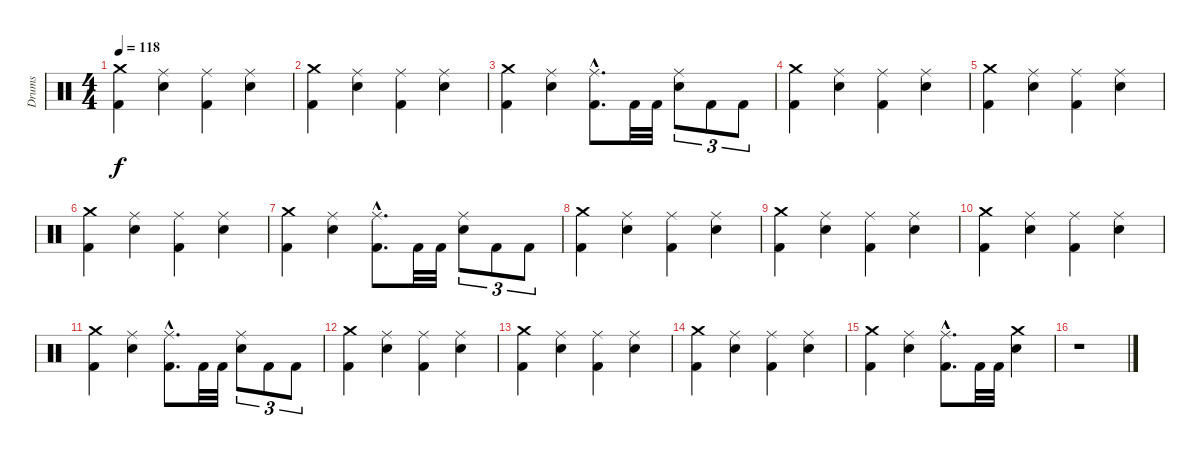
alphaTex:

\track ("Drums" "Drums") {instrument percussion}
\staff {score}
\articulation defaults
\ts (4 4)
\tempo 118
\clef neutral
\ks c
("Crash medium (hit)" "Kick (hit) 2").4{dy f} ("Ride (middle)" "Electric Snare (hit)").4 ("Ride (middle)" "Kick (hit) 2").4 ("Ride (middle)" "Electric Snare (hit)").4 |
("Crash medium (hit)" "Kick (hit) 2").4 ("Ride (middle)" "Electric Snare (hit)").4 ("Ride (middle)" "Kick (hit) 2").4 ("Ride (middle)" "Electric Snare (hit)").4 |
("Crash medium (hit)" "Kick (hit) 2").4 ("Ride (middle)" "Electric Snare (hit)").4 ("Ride (middle)"{hac} "Kick (hit) 2"{hac}).8{d} "Kick (hit) 2".32 "Kick (hit) 2".32 ("Ride (middle)" "Electric Snare (hit)").8{tu (3 2)} "Kick (hit) 2".8{tu (3 2)} "Kick (hit) 2".8{tu (3 2)} |
("Crash medium (hit)" "Kick (hit) 2").4 ("Ride (middle)" "Electric Snare (hit)").4 ("Ride (middle)" "Kick (hit) 2").4 ("Ride (middle)" "Electric Snare (hit)").4 |
("Crash medium (hit)" "Kick (hit) 2").4 ("Ride (middle)" "Electric Snare (hit)").4 ("Ride (middle)" "Kick (hit) 2").4 ("Ride (middle)" "Electric Snare (hit)").4 |
("Crash medium (hit)" "Kick (hit) 2").4 ("Ride (middle)" "Electric Snare (hit)").4 ("Ride (middle)" "Kick (hit) 2").4 ("Ride (middle)" "Electric Snare (hit)").4 |
("Crash medium (hit)" "Kick (hit) 2").4 ("Ride (middle)" "Electric Snare (hit)").4 ("Ride (middle)"{hac} "Kick (hit) 2"{hac}).8{d} "Kick (hit) 2".32 "Kick (hit) 2".32 ("Ride (middle)" "Electric Snare (hit)").8{tu (3 2)} "Kick (hit) 2".8{tu (3 2)} "Kick (hit) 2".8{tu (3 2)} |
("Crash medium (hit)" "Kick (hit) 2").4 ("Ride (middle)" "Electric Snare (hit)").4 ("Ride (middle)" "Kick (hit) 2").4 ("Ride (middle)" "Electric Snare (hit)").4 |
("Crash medium (hit)" "Kick (hit) 2").4 ("Ride (middle)" "Electric Snare (hit)").4 ("Ride (middle)" "Kick (hit) 2").4 ("Ride (middle)" "Electric Snare (hit)").4 |
("Crash medium (hit)" "Kick (hit) 2").4 ("Ride (middle)" "Electric Snare (hit)").4 ("Ride (middle)" "Kick (hit) 2").4 ("Ride (middle)" "Electric Snare (hit)").4 |
("Crash medium (hit)" "Kick (hit) 2").4 ("Ride (middle)" "Electric Snare (hit)").4 ("Ride (middle)"{hac} "Kick (hit) 2"{hac}).8{d} "Kick (hit) 2".32 "Kick (hit) 2".32 ("Ride (middle)" "Electric Snare (hit)").8{tu (3 2)} "Kick (hit) 2".8{tu (3 2)} "Kick (hit) 2".8{tu (3 2)} |
("Crash medium (hit)" "Kick (hit) 2").4 ("Ride (middle)" "Electric Snare (hit)").4 ("Ride (middle)" "Kick (hit) 2").4 ("Ride (middle)" "Electric Snare (hit)").4 |
("Crash medium (hit)" "Kick (hit) 2").4 ("Ride (middle)" "Electric Snare (hit)").4 ("Ride (middle)" "Kick (hit) 2").4 ("Ride (middle)" "Electric Snare (hit)").4 |
("Crash medium (hit)" "Kick (hit) 2").4 ("Ride (middle)" "Electric Snare (hit)").4 ("Ride (middle)" "Kick (hit) 2").4 ("Ride (middle)" "Electric Snare (hit)").4 |
("Crash medium (hit)" "Kick (hit) 2").4 ("Ride (middle)" "Electric Snare (hit)").4 ("Ride (middle)"{hac} "Kick (hit) 2"{hac}).8{d} "Kick (hit) 2".32 "Kick (hit) 2".32 ("Crash medium (hit)" "Electric Snare (hit)").4 |
r.1
